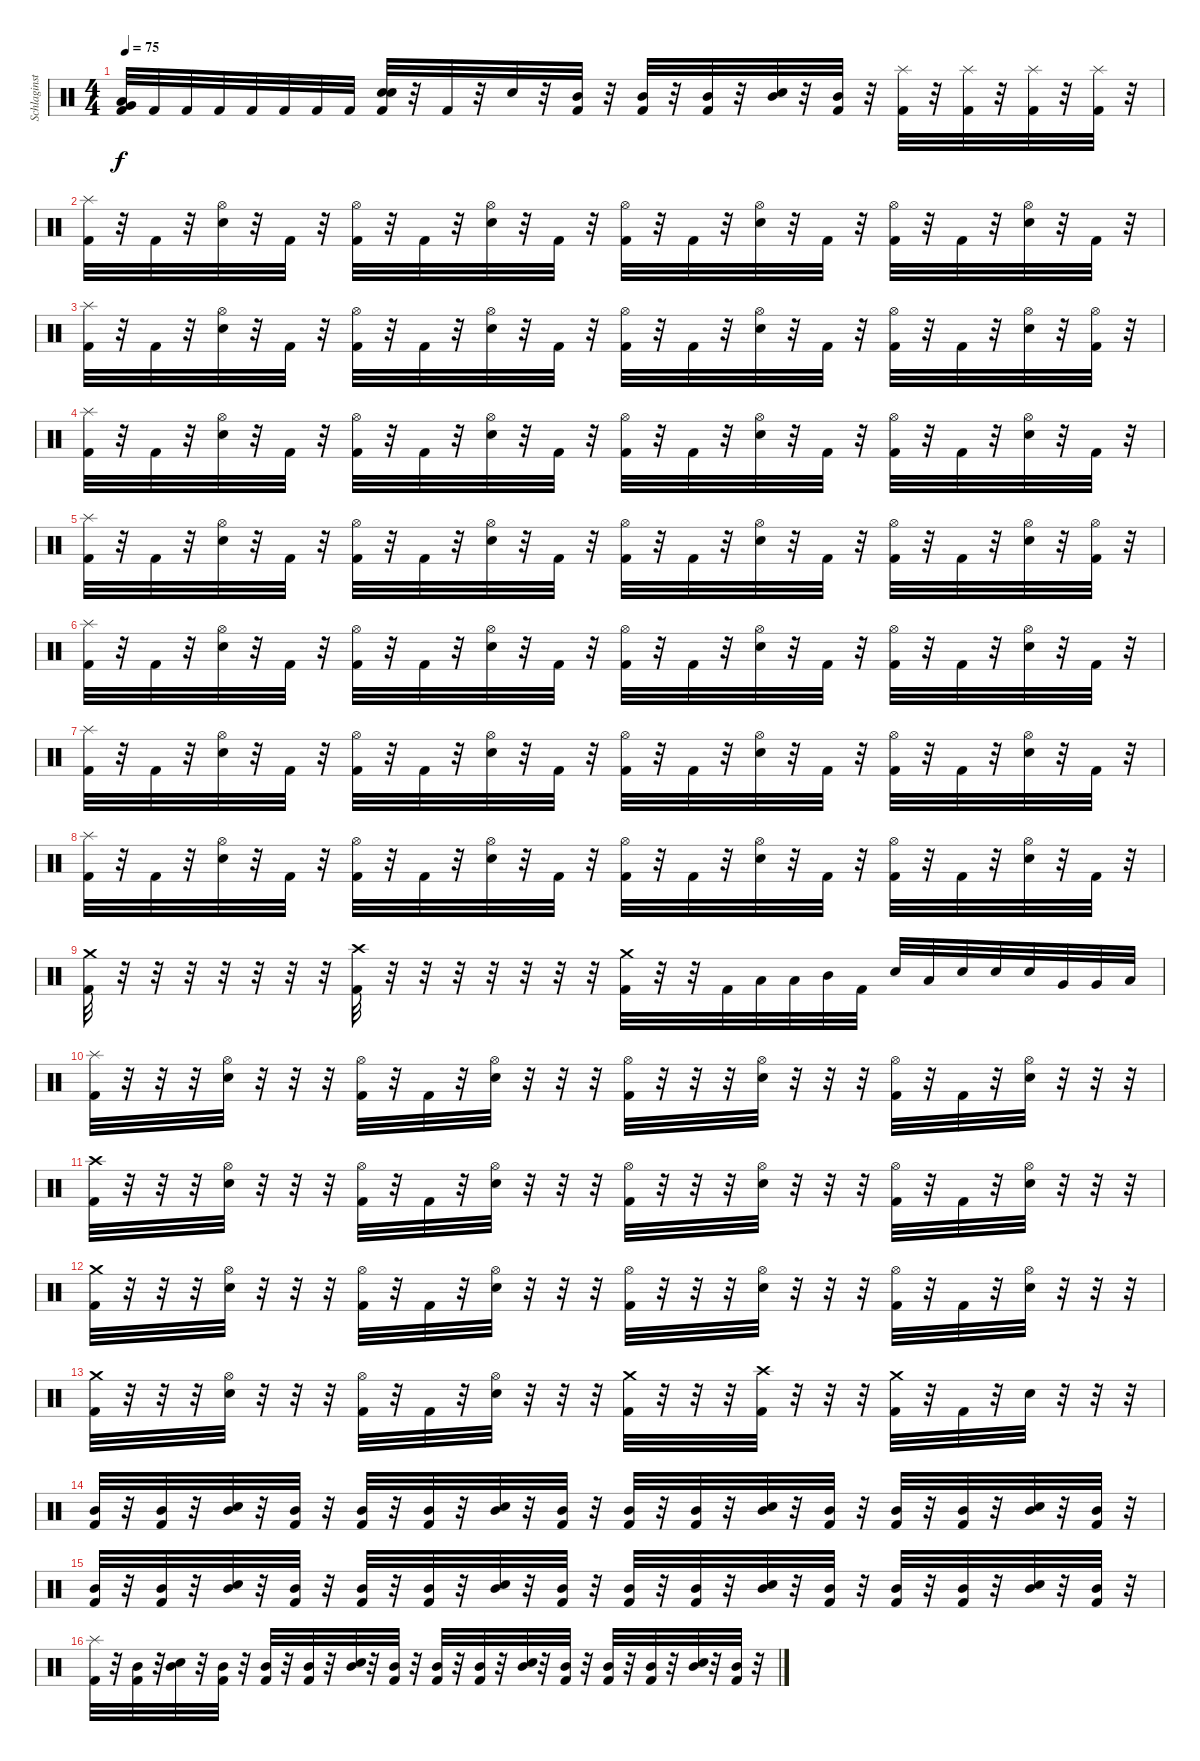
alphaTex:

\track ("Schlaginstrumente - Auswahl" "Schlaginst") {instrument percussion}
\staff {score}
\articulation defaults
\ts (4 4)
\tempo 75
\clef neutral
\ks c
("Kick (hit) 2" "Low Tom (hit)" "Very Low Tom (hit)").32{dy f} "Kick (hit) 2".32 "Kick (hit) 2".32 "Kick (hit) 2".32 "Kick (hit) 2".32 "Kick (hit) 2".32 "Kick (hit) 2".32 "Kick (hit) 2".32 ("Kick (hit) 2" "Electric Snare (hit)" "Electric Snare (hit)").32 r.32 "Kick (hit) 2".32 r.32 "Electric Snare (hit)".32 r.32 ("Kick (hit) 2" "Mid Tom (hit)").32 r.32 ("Kick (hit) 2" "Mid Tom (hit)").32 r.32 ("Kick (hit) 2" "Mid Tom (hit)").32 r.32 ("Electric Snare (hit)" "Mid Tom (hit)").32 r.32 ("Kick (hit) 2" "Mid Tom (hit)").32 r.32 ("Kick (hit) 2" "Splash (hit)").32 r.32 ("Kick (hit) 2" "Splash (hit)").32 r.32 ("Kick (hit) 2" "Splash (hit)").32 r.32 ("Kick (hit) 2" "Splash (hit)").32 r.32 |
("Kick (hit) 2" "Splash (hit)").32 r.32 "Kick (hit) 2".32 r.32 ("Electric Snare (hit)" "Hi-Hat (open)").32 r.32 "Kick (hit) 2".32 r.32 ("Kick (hit) 2" "Hi-Hat (open)").32 r.32 "Kick (hit) 2".32 r.32 ("Electric Snare (hit)" "Hi-Hat (open)").32 r.32 "Kick (hit) 2".32 r.32 ("Kick (hit) 2" "Hi-Hat (open)").32 r.32 "Kick (hit) 2".32 r.32 ("Electric Snare (hit)" "Hi-Hat (open)").32 r.32 "Kick (hit) 2".32 r.32 ("Kick (hit) 2" "Hi-Hat (open)").32 r.32 "Kick (hit) 2".32 r.32 ("Electric Snare (hit)" "Hi-Hat (open)").32 r.32 "Kick (hit) 2".32 r.32 |
("Kick (hit) 2" "Splash (hit)").32 r.32 "Kick (hit) 2".32 r.32 ("Electric Snare (hit)" "Hi-Hat (open)").32 r.32 "Kick (hit) 2".32 r.32 ("Kick (hit) 2" "Hi-Hat (open)").32 r.32 "Kick (hit) 2".32 r.32 ("Electric Snare (hit)" "Hi-Hat (open)").32 r.32 "Kick (hit) 2".32 r.32 ("Kick (hit) 2" "Hi-Hat (open)").32 r.32 "Kick (hit) 2".32 r.32 ("Electric Snare (hit)" "Hi-Hat (open)").32 r.32 "Kick (hit) 2".32 r.32 ("Kick (hit) 2" "Hi-Hat (open)").32 r.32 "Kick (hit) 2".32 r.32 ("Electric Snare (hit)" "Hi-Hat (open)").32 r.32 ("Kick (hit) 2" "Hi-Hat (open)").32 r.32 |
("Kick (hit) 2" "Splash (hit)").32 r.32 "Kick (hit) 2".32 r.32 ("Electric Snare (hit)" "Hi-Hat (open)").32 r.32 "Kick (hit) 2".32 r.32 ("Kick (hit) 2" "Hi-Hat (open)").32 r.32 "Kick (hit) 2".32 r.32 ("Electric Snare (hit)" "Hi-Hat (open)").32 r.32 "Kick (hit) 2".32 r.32 ("Kick (hit) 2" "Hi-Hat (open)").32 r.32 "Kick (hit) 2".32 r.32 ("Electric Snare (hit)" "Hi-Hat (open)").32 r.32 "Kick (hit) 2".32 r.32 ("Kick (hit) 2" "Hi-Hat (open)").32 r.32 "Kick (hit) 2".32 r.32 ("Electric Snare (hit)" "Hi-Hat (open)").32 r.32 "Kick (hit) 2".32 r.32 |
("Kick (hit) 2" "Splash (hit)").32 r.32 "Kick (hit) 2".32 r.32 ("Electric Snare (hit)" "Hi-Hat (open)").32 r.32 "Kick (hit) 2".32 r.32 ("Kick (hit) 2" "Hi-Hat (open)").32 r.32 "Kick (hit) 2".32 r.32 ("Electric Snare (hit)" "Hi-Hat (open)").32 r.32 "Kick (hit) 2".32 r.32 ("Kick (hit) 2" "Hi-Hat (open)").32 r.32 "Kick (hit) 2".32 r.32 ("Electric Snare (hit)" "Hi-Hat (open)").32 r.32 "Kick (hit) 2".32 r.32 ("Kick (hit) 2" "Hi-Hat (open)").32 r.32 "Kick (hit) 2".32 r.32 ("Electric Snare (hit)" "Hi-Hat (open)").32 r.32 ("Kick (hit) 2" "Hi-Hat (open)").32 r.32 |
("Kick (hit) 2" "Splash (hit)").32 r.32 "Kick (hit) 2".32 r.32 ("Electric Snare (hit)" "Hi-Hat (open)").32 r.32 "Kick (hit) 2".32 r.32 ("Kick (hit) 2" "Hi-Hat (open)").32 r.32 "Kick (hit) 2".32 r.32 ("Electric Snare (hit)" "Hi-Hat (open)").32 r.32 "Kick (hit) 2".32 r.32 ("Kick (hit) 2" "Hi-Hat (open)").32 r.32 "Kick (hit) 2".32 r.32 ("Electric Snare (hit)" "Hi-Hat (open)").32 r.32 "Kick (hit) 2".32 r.32 ("Kick (hit) 2" "Hi-Hat (open)").32 r.32 "Kick (hit) 2".32 r.32 ("Electric Snare (hit)" "Hi-Hat (open)").32 r.32 "Kick (hit) 2".32 r.32 |
("Kick (hit) 2" "Splash (hit)").32 r.32 "Kick (hit) 2".32 r.32 ("Electric Snare (hit)" "Hi-Hat (open)").32 r.32 "Kick (hit) 2".32 r.32 ("Kick (hit) 2" "Hi-Hat (open)").32 r.32 "Kick (hit) 2".32 r.32 ("Electric Snare (hit)" "Hi-Hat (open)").32 r.32 "Kick (hit) 2".32 r.32 ("Kick (hit) 2" "Hi-Hat (open)").32 r.32 "Kick (hit) 2".32 r.32 ("Electric Snare (hit)" "Hi-Hat (open)").32 r.32 "Kick (hit) 2".32 r.32 ("Kick (hit) 2" "Hi-Hat (open)").32 r.32 "Kick (hit) 2".32 r.32 ("Electric Snare (hit)" "Hi-Hat (open)").32 r.32 "Kick (hit) 2".32 r.32 |
("Kick (hit) 2" "Splash (hit)").32 r.32 "Kick (hit) 2".32 r.32 ("Electric Snare (hit)" "Hi-Hat (open)").32 r.32 "Kick (hit) 2".32 r.32 ("Kick (hit) 2" "Hi-Hat (open)").32 r.32 "Kick (hit) 2".32 r.32 ("Electric Snare (hit)" "Hi-Hat (open)").32 r.32 "Kick (hit) 2".32 r.32 ("Kick (hit) 2" "Hi-Hat (open)").32 r.32 "Kick (hit) 2".32 r.32 ("Electric Snare (hit)" "Hi-Hat (open)").32 r.32 "Kick (hit) 2".32 r.32 ("Kick (hit) 2" "Hi-Hat (open)").32 r.32 "Kick (hit) 2".32 r.32 ("Electric Snare (hit)" "Hi-Hat (open)").32 r.32 "Kick (hit) 2".32 r.32 |
("Kick (hit) 2" "Crash medium (hit)").32 r.32 r.32 r.32 r.32 r.32 r.32 r.32 ("Kick (hit) 2" "Crash high (hit)").32 r.32 r.32 r.32 r.32 r.32 r.32 r.32 ("Kick (hit) 2" "Crash medium (hit)").32 r.32 r.32 "Kick (hit) 2".32 "Low Tom (hit)".32 "Low Tom (hit)".32 "Mid Tom (hit)".32 "Kick (hit) 2".32 "Electric Snare (hit)".32 "Low Tom (hit)".32 "Electric Snare (hit)".32 "Electric Snare (hit)".32 "Electric Snare (hit)".32 "Very Low Tom (hit)".32 "Very Low Tom (hit)".32 "Low Floor Tom (hit)".32 |
("Kick (hit) 2" "Splash (hit)").32 r.32 r.32 r.32 ("Electric Snare (hit)" "Hi-Hat (open)").32 r.32 r.32 r.32 ("Kick (hit) 2" "Hi-Hat (open)").32 r.32 "Kick (hit) 2".32 r.32 ("Electric Snare (hit)" "Hi-Hat (open)").32 r.32 r.32 r.32 ("Kick (hit) 2" "Hi-Hat (open)").32 r.32 r.32 r.32 ("Electric Snare (hit)" "Hi-Hat (open)").32 r.32 r.32 r.32 ("Kick (hit) 2" "Hi-Hat (open)").32 r.32 "Kick (hit) 2".32 r.32 ("Electric Snare (hit)" "Hi-Hat (open)").32 r.32 r.32 r.32 |
("Kick (hit) 2" "Crash high (hit)").32 r.32 r.32 r.32 ("Electric Snare (hit)" "Hi-Hat (open)").32 r.32 r.32 r.32 ("Kick (hit) 2" "Hi-Hat (open)").32 r.32 "Kick (hit) 2".32 r.32 ("Electric Snare (hit)" "Hi-Hat (open)").32 r.32 r.32 r.32 ("Kick (hit) 2" "Hi-Hat (open)").32 r.32 r.32 r.32 ("Electric Snare (hit)" "Hi-Hat (open)").32 r.32 r.32 r.32 ("Kick (hit) 2" "Hi-Hat (open)").32 r.32 "Kick (hit) 2".32 r.32 ("Electric Snare (hit)" "Hi-Hat (open)").32 r.32 r.32 r.32 |
("Kick (hit) 2" "Crash medium (hit)").32 r.32 r.32 r.32 ("Electric Snare (hit)" "Hi-Hat (open)").32 r.32 r.32 r.32 ("Kick (hit) 2" "Hi-Hat (open)").32 r.32 "Kick (hit) 2".32 r.32 ("Electric Snare (hit)" "Hi-Hat (open)").32 r.32 r.32 r.32 ("Kick (hit) 2" "Hi-Hat (open)").32 r.32 r.32 r.32 ("Electric Snare (hit)" "Hi-Hat (open)").32 r.32 r.32 r.32 ("Kick (hit) 2" "Hi-Hat (open)").32 r.32 "Kick (hit) 2".32 r.32 ("Electric Snare (hit)" "Hi-Hat (open)").32 r.32 r.32 r.32 |
("Kick (hit) 2" "Crash medium (hit)").32 r.32 r.32 r.32 ("Electric Snare (hit)" "Hi-Hat (open)").32 r.32 r.32 r.32 ("Kick (hit) 2" "Hi-Hat (open)").32 r.32 "Kick (hit) 2".32 r.32 ("Electric Snare (hit)" "Hi-Hat (open)").32 r.32 r.32 r.32 ("Kick (hit) 2" "Crash medium (hit)").32 r.32 r.32 r.32 ("Kick (hit) 2" "Crash high (hit)").32 r.32 r.32 r.32 ("Kick (hit) 2" "Crash medium (hit)").32 r.32 "Kick (hit) 2".32 r.32 "Electric Snare (hit)".32 r.32 r.32 r.32 |
("Kick (hit) 2" "Mid Tom (hit)").32 r.32 ("Kick (hit) 2" "Mid Tom (hit)").32 r.32 ("Electric Snare (hit)" "Mid Tom (hit)").32 r.32 ("Kick (hit) 2" "Mid Tom (hit)").32 r.32 ("Kick (hit) 2" "Mid Tom (hit)").32 r.32 ("Kick (hit) 2" "Mid Tom (hit)").32 r.32 ("Electric Snare (hit)" "Mid Tom (hit)").32 r.32 ("Kick (hit) 2" "Mid Tom (hit)").32 r.32 ("Kick (hit) 2" "Mid Tom (hit)").32 r.32 ("Kick (hit) 2" "Mid Tom (hit)").32 r.32 ("Electric Snare (hit)" "Mid Tom (hit)").32 r.32 ("Kick (hit) 2" "Mid Tom (hit)").32 r.32 ("Kick (hit) 2" "Mid Tom (hit)").32 r.32 ("Kick (hit) 2" "Mid Tom (hit)").32 r.32 ("Electric Snare (hit)" "Mid Tom (hit)").32 r.32 ("Kick (hit) 2" "Mid Tom (hit)").32 r.32 |
("Kick (hit) 2" "Mid Tom (hit)").32 r.32 ("Kick (hit) 2" "Mid Tom (hit)").32 r.32 ("Electric Snare (hit)" "Mid Tom (hit)").32 r.32 ("Kick (hit) 2" "Mid Tom (hit)").32 r.32 ("Kick (hit) 2" "Mid Tom (hit)").32 r.32 ("Kick (hit) 2" "Mid Tom (hit)").32 r.32 ("Electric Snare (hit)" "Mid Tom (hit)").32 r.32 ("Kick (hit) 2" "Mid Tom (hit)").32 r.32 ("Kick (hit) 2" "Mid Tom (hit)").32 r.32 ("Kick (hit) 2" "Mid Tom (hit)").32 r.32 ("Electric Snare (hit)" "Mid Tom (hit)").32 r.32 ("Kick (hit) 2" "Mid Tom (hit)").32 r.32 ("Kick (hit) 2" "Mid Tom (hit)").32 r.32 ("Kick (hit) 2" "Mid Tom (hit)").32 r.32 ("Electric Snare (hit)" "Mid Tom (hit)").32 r.32 ("Kick (hit) 2" "Mid Tom (hit)").32 r.32 |
("Kick (hit) 2" "Splash (hit)").32 r.32 ("Kick (hit) 2" "Mid Tom (hit)").32 r.32 ("Electric Snare (hit)" "Mid Tom (hit)").32 r.32 ("Kick (hit) 2" "Mid Tom (hit)").32 r.32 ("Kick (hit) 2" "Mid Tom (hit)").32 r.32 ("Kick (hit) 2" "Mid Tom (hit)").32 r.32 ("Electric Snare (hit)" "Mid Tom (hit)").32 r.32 ("Kick (hit) 2" "Mid Tom (hit)").32 r.32 ("Kick (hit) 2" "Mid Tom (hit)").32 r.32 ("Kick (hit) 2" "Mid Tom (hit)").32 r.32 ("Electric Snare (hit)" "Mid Tom (hit)").32 r.32 ("Kick (hit) 2" "Mid Tom (hit)").32 r.32 ("Kick (hit) 2" "Mid Tom (hit)").32 r.32 ("Kick (hit) 2" "Mid Tom (hit)").32 r.32 ("Electric Snare (hit)" "Mid Tom (hit)").32 r.32 ("Kick (hit) 2" "Mid Tom (hit)").32 r.32
